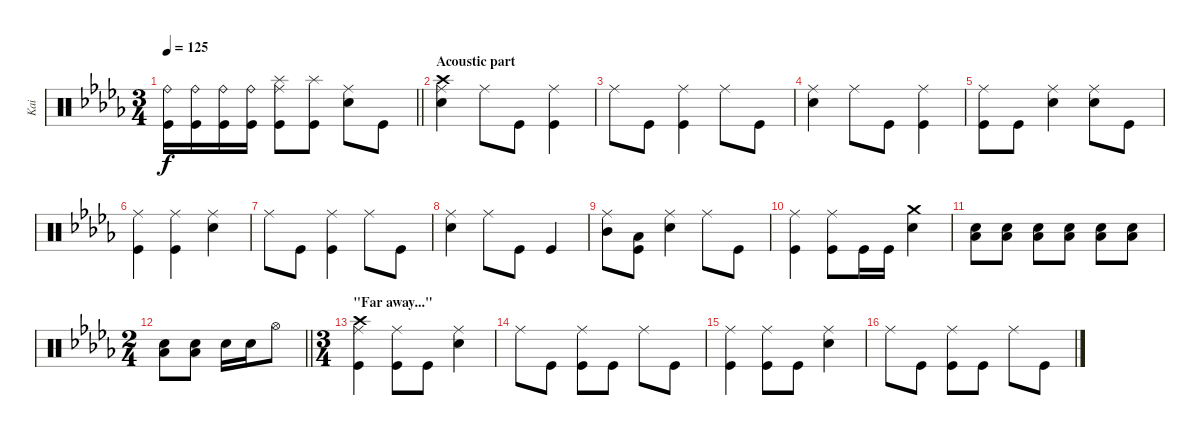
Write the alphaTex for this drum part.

\track ("Kai" "Kai") {instrument percussion}
\staff {score}
\articulation defaults
\ts (3 4)
\tempo 125
\clef neutral
\barLineRight lightlight
\ks bbminor
("Ride (bell)" "Kick (hit)").16{dy f} ("Ride (bell)" "Kick (hit)").16 ("Ride (bell)" "Kick (hit)").16 ("Ride (bell)" "Kick (hit)").16 ("Kick (hit)" "Ride (middle)" "Splash (hit)").8 ("Kick (hit)" "Splash (hit)").8 ("Snare (hit) 2" "Ride (middle)").8 "Kick (hit)".8 |
\section ("" "Acoustic part")
("Crash high (hit)" "Ride (middle)" "Snare (hit) 2").4 "Ride (middle)".8 "Kick (hit)".8 ("Ride (middle)" "Kick (hit)").4 |
"Ride (middle)".8 "Kick (hit)".8 ("Ride (middle)" "Kick (hit)").4 "Ride (middle)".8 "Kick (hit)".8 |
("Snare (hit) 2" "Ride (middle)").4 "Ride (middle)".8 "Kick (hit)".8 ("Ride (middle)" "Kick (hit)").4 |
("Ride (middle)" "Kick (hit)").8 "Kick (hit)".8 ("Snare (hit) 2" "Ride (middle)").4 ("Ride (middle)" "Snare (hit) 2").8 "Kick (hit)".8 |
("Ride (middle)" "Kick (hit)").4 ("Ride (middle)" "Kick (hit)").4 ("Snare (hit) 2" "Ride (middle)").4 |
"Ride (middle)".8 "Kick (hit)".8 ("Ride (middle)" "Kick (hit)").4 "Ride (middle)".8 "Kick (hit)".8 |
("Snare (hit) 2" "Ride (middle)").4 "Ride (middle)".8 "Kick (hit)".8 "Kick (hit)".4 |
("Ride (middle)" "Mid Tom (hit)").8 ("Low Tom (hit)" "Kick (hit)").8 ("Snare (hit) 2" "Ride (middle)").4 "Ride (middle)".8 "Kick (hit)".8 |
("Ride (middle)" "Kick (hit)").4 ("Ride (middle)" "Kick (hit)").8 "Kick (hit)".16 "Kick (hit)".16 ("Snare (hit) 2" "Crash medium (hit)").4 |
("Snare (hit) 2" "Low Floor Tom (hit)").8 ("Snare (hit) 2" "Low Floor Tom (hit)").8 ("Snare (hit) 2" "Low Floor Tom (hit)").8 ("Snare (hit) 2" "Low Floor Tom (hit)").8 ("Snare (hit) 2" "Low Floor Tom (hit)").8 ("Snare (hit) 2" "Low Floor Tom (hit)").8 |
\ts (2 4)
\barLineRight lightlight
("Snare (hit) 2" "Low Floor Tom (hit)").8 ("Snare (hit) 2" "Low Floor Tom (hit)").8 "Snare (hit) 2".16 "Snare (hit) 2".16 "Hi-Hat (open)".8 |
\ts (3 4)
\section ("" "\"Far away...\"")
("Crash high (hit)" "Ride (middle)" "Kick (hit)").4 ("Kick (hit)" "Ride (middle)").8 "Kick (hit)".8 ("Snare (hit) 2" "Ride (middle)").4 |
"Ride (middle)".8 "Kick (hit)".8 ("Kick (hit)" "Ride (middle)").8 "Kick (hit)".8 "Ride (middle)".8 "Kick (hit)".8 |
("Kick (hit)" "Ride (middle)").4 ("Kick (hit)" "Ride (middle)").8 "Kick (hit)".8 ("Snare (hit) 2" "Ride (middle)").4 |
"Ride (middle)".8 "Kick (hit)".8 ("Kick (hit)" "Ride (middle)").8 "Kick (hit)".8 "Ride (middle)".8 "Kick (hit)".8
